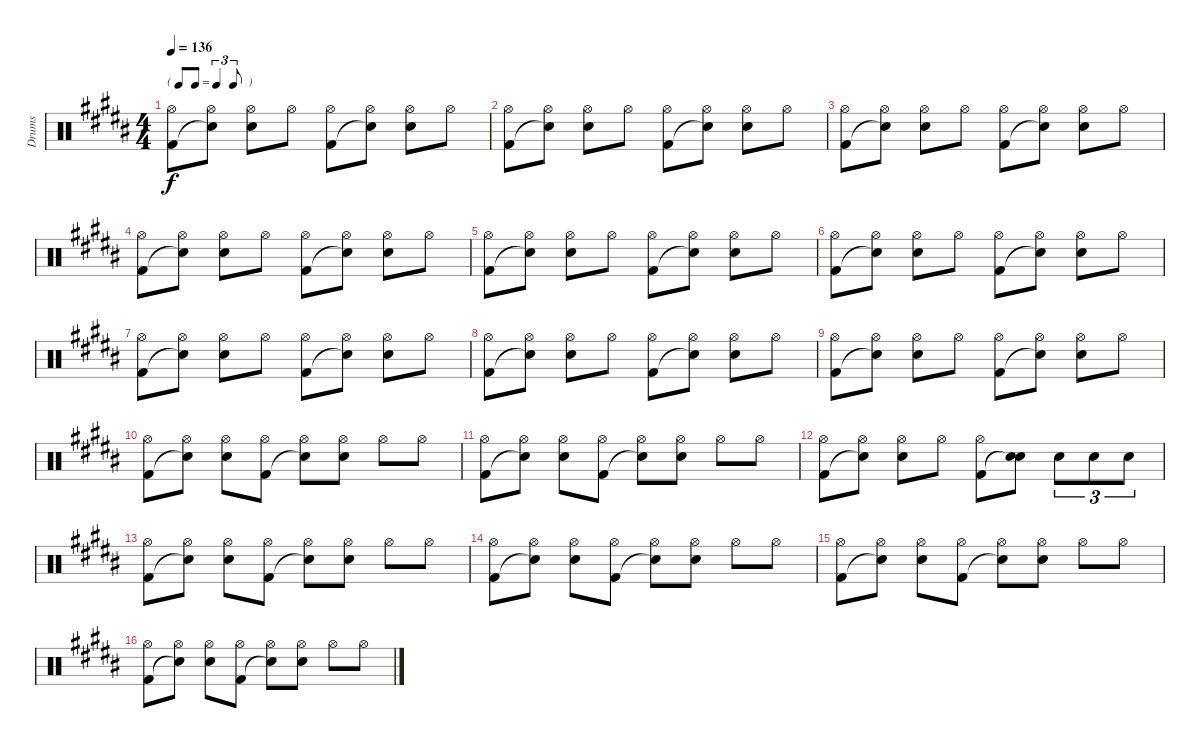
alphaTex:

\track ("Drums" "Drums") {instrument percussion}
\staff {score}
\articulation defaults
\ts (4 4)
\tf triplet8th
\tempo 136
\clef neutral
\ks b
("Hi-Hat (open)" "Kick (hit) 2").8{dy f} ("Hi-Hat (open)" "Snare (hit)"{t}).8 ("Hi-Hat (open)" "Snare (hit) 2").8 "Hi-Hat (open)".8 ("Hi-Hat (open)" "Kick (hit) 2").8 ("Hi-Hat (open)" "Snare (hit)"{t}).8 ("Hi-Hat (open)" "Snare (hit) 2").8 "Hi-Hat (open)".8 |
("Hi-Hat (open)" "Kick (hit) 2").8 ("Hi-Hat (open)" "Snare (hit)"{t}).8 ("Hi-Hat (open)" "Snare (hit) 2").8 "Hi-Hat (open)".8 ("Hi-Hat (open)" "Kick (hit) 2").8 ("Hi-Hat (open)" "Snare (hit)"{t}).8 ("Hi-Hat (open)" "Snare (hit) 2").8 "Hi-Hat (open)".8 |
("Hi-Hat (open)" "Kick (hit) 2").8 ("Hi-Hat (open)" "Snare (hit)"{t}).8 ("Hi-Hat (open)" "Snare (hit) 2").8 "Hi-Hat (open)".8 ("Hi-Hat (open)" "Kick (hit) 2").8 ("Hi-Hat (open)" "Snare (hit)"{t}).8 ("Hi-Hat (open)" "Snare (hit) 2").8 "Hi-Hat (open)".8 |
("Hi-Hat (open)" "Kick (hit) 2").8 ("Hi-Hat (open)" "Snare (hit)"{t}).8 ("Hi-Hat (open)" "Snare (hit) 2").8 "Hi-Hat (open)".8 ("Hi-Hat (open)" "Kick (hit) 2").8 ("Hi-Hat (open)" "Snare (hit)"{t}).8 ("Hi-Hat (open)" "Snare (hit) 2").8 "Hi-Hat (open)".8 |
("Hi-Hat (open)" "Kick (hit) 2").8 ("Hi-Hat (open)" "Snare (hit)"{t}).8 ("Hi-Hat (open)" "Snare (hit) 2").8 "Hi-Hat (open)".8 ("Hi-Hat (open)" "Kick (hit) 2").8 ("Hi-Hat (open)" "Snare (hit)"{t}).8 ("Hi-Hat (open)" "Snare (hit) 2").8 "Hi-Hat (open)".8 |
("Hi-Hat (open)" "Kick (hit) 2").8 ("Hi-Hat (open)" "Snare (hit)"{t}).8 ("Hi-Hat (open)" "Snare (hit) 2").8 "Hi-Hat (open)".8 ("Hi-Hat (open)" "Kick (hit) 2").8 ("Hi-Hat (open)" "Snare (hit)"{t}).8 ("Hi-Hat (open)" "Snare (hit) 2").8 "Hi-Hat (open)".8 |
("Hi-Hat (open)" "Kick (hit) 2").8 ("Hi-Hat (open)" "Snare (hit)"{t}).8 ("Hi-Hat (open)" "Snare (hit) 2").8 "Hi-Hat (open)".8 ("Hi-Hat (open)" "Kick (hit) 2").8 ("Hi-Hat (open)" "Snare (hit)"{t}).8 ("Hi-Hat (open)" "Snare (hit) 2").8 "Hi-Hat (open)".8 |
("Hi-Hat (open)" "Kick (hit) 2").8 ("Hi-Hat (open)" "Snare (hit)"{t}).8 ("Hi-Hat (open)" "Snare (hit) 2").8 "Hi-Hat (open)".8 ("Hi-Hat (open)" "Kick (hit) 2").8 ("Hi-Hat (open)" "Snare (hit)"{t}).8 ("Hi-Hat (open)" "Snare (hit) 2").8 "Hi-Hat (open)".8 |
("Hi-Hat (open)" "Kick (hit) 2").8 ("Hi-Hat (open)" "Snare (hit)"{t}).8 ("Hi-Hat (open)" "Snare (hit) 2").8 "Hi-Hat (open)".8 ("Hi-Hat (open)" "Kick (hit) 2").8 ("Hi-Hat (open)" "Snare (hit)"{t}).8 ("Hi-Hat (open)" "Snare (hit) 2").8 "Hi-Hat (open)".8 |
("Hi-Hat (open)" "Kick (hit) 2").8 ("Hi-Hat (open)" "Snare (hit)"{t}).8 ("Hi-Hat (open)" "Snare (hit) 2").8 ("Hi-Hat (open)" "Kick (hit) 2").8 ("Hi-Hat (open)" "Snare (hit)"{t}).8 ("Hi-Hat (open)" "Snare (hit) 2").8 "Hi-Hat (open)".8 "Hi-Hat (open)".8 |
("Hi-Hat (open)" "Kick (hit) 2").8 ("Hi-Hat (open)" "Snare (hit)"{t}).8 ("Hi-Hat (open)" "Snare (hit) 2").8 ("Hi-Hat (open)" "Kick (hit) 2").8 ("Hi-Hat (open)" "Snare (hit)"{t}).8 ("Hi-Hat (open)" "Snare (hit) 2").8 "Hi-Hat (open)".8 "Hi-Hat (open)".8 |
("Hi-Hat (open)" "Kick (hit) 2").8 ("Hi-Hat (open)" "Snare (hit)"{t}).8 ("Hi-Hat (open)" "Snare (hit) 2").8 "Hi-Hat (open)".8 ("Hi-Hat (open)" "Kick (hit) 2").8 ("Snare (hit) 2" "Snare (hit)"{t}).8 "Snare (hit) 2".8{tu (3 2)} "Snare (hit) 2".8{tu (3 2)} "Snare (hit) 2".8{tu (3 2)} |
("Hi-Hat (open)" "Kick (hit) 2").8 ("Hi-Hat (open)" "Snare (hit)"{t}).8 ("Hi-Hat (open)" "Snare (hit) 2").8 ("Hi-Hat (open)" "Kick (hit) 2").8 ("Hi-Hat (open)" "Snare (hit)"{t}).8 ("Hi-Hat (open)" "Snare (hit) 2").8 "Hi-Hat (open)".8 "Hi-Hat (open)".8 |
("Hi-Hat (open)" "Kick (hit) 2").8 ("Hi-Hat (open)" "Snare (hit)"{t}).8 ("Hi-Hat (open)" "Snare (hit) 2").8 ("Hi-Hat (open)" "Kick (hit) 2").8 ("Hi-Hat (open)" "Snare (hit)"{t}).8 ("Hi-Hat (open)" "Snare (hit) 2").8 "Hi-Hat (open)".8 "Hi-Hat (open)".8 |
("Hi-Hat (open)" "Kick (hit) 2").8 ("Hi-Hat (open)" "Snare (hit)"{t}).8 ("Hi-Hat (open)" "Snare (hit) 2").8 ("Hi-Hat (open)" "Kick (hit) 2").8 ("Hi-Hat (open)" "Snare (hit)"{t}).8 ("Hi-Hat (open)" "Snare (hit) 2").8 "Hi-Hat (open)".8 "Hi-Hat (open)".8 |
("Hi-Hat (open)" "Kick (hit) 2").8 ("Hi-Hat (open)" "Snare (hit)"{t}).8 ("Hi-Hat (open)" "Snare (hit) 2").8 ("Hi-Hat (open)" "Kick (hit) 2").8 ("Hi-Hat (open)" "Snare (hit)"{t}).8 ("Hi-Hat (open)" "Snare (hit) 2").8 "Hi-Hat (open)".8 "Hi-Hat (open)".8
